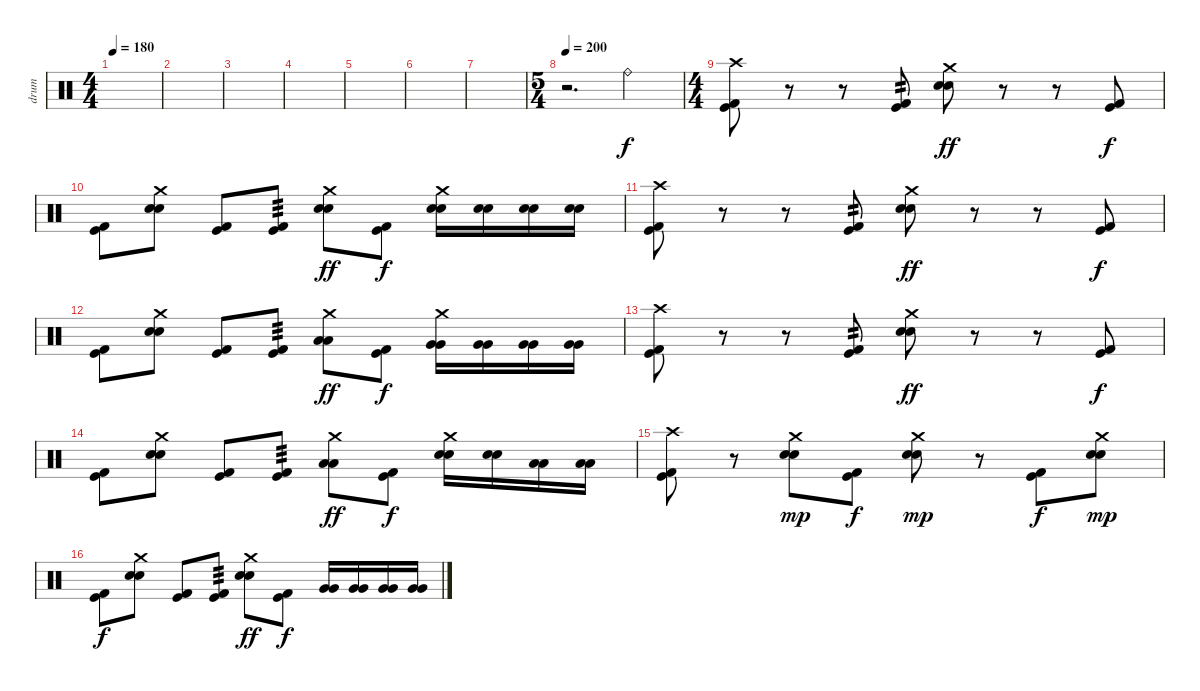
\track ("drum" "drum") {instrument percussion}
\staff {score}
\articulation defaults
\ts (4 4)
\tempo 180
\clef neutral
\ks c
|
|
|
|
|
|
|
\ts (5 4)
\tempo 200
r.2{d} "Ride (bell)".2{dy f} |
\ts (4 4)
("Crash high (hit)" "Kick (hit)" "Kick (hit) 2").8 r.8 r.8 ("Kick (hit)" "Kick (hit) 2").8{tp 2} ("Crash medium (hit)" "Electric Snare (hit)" "Electric Snare (hit)").8{dy ff} r.8 r.8 ("Kick (hit)" "Kick (hit) 2").8{dy f} |
("Kick (hit)" "Kick (hit) 2").8 ("Crash medium (hit)" "Electric Snare (hit)" "Electric Snare (hit)").8 ("Kick (hit)" "Kick (hit) 2").8 ("Kick (hit)" "Kick (hit) 2").8{tp 3} ("Crash medium (hit)" "Electric Snare (hit)" "Electric Snare (hit)").8{dy ff} ("Kick (hit)" "Kick (hit) 2").8{dy f} ("Crash medium (hit)" "Electric Snare (hit)" "Electric Snare (hit)").16 ("Electric Snare (hit)" "Electric Snare (hit)").16 ("Electric Snare (hit)" "Electric Snare (hit)").16 ("Electric Snare (hit)" "Electric Snare (hit)").16 |
("Crash high (hit)" "Kick (hit)" "Kick (hit) 2").8 r.8 r.8 ("Kick (hit)" "Kick (hit) 2").8{tp 2} ("Crash medium (hit)" "Electric Snare (hit)" "Electric Snare (hit)").8{dy ff} r.8 r.8 ("Kick (hit)" "Kick (hit) 2").8{dy f} |
("Kick (hit)" "Kick (hit) 2").8 ("Crash medium (hit)" "Electric Snare (hit)" "Electric Snare (hit)").8 ("Kick (hit)" "Kick (hit) 2").8 ("Kick (hit)" "Kick (hit) 2").8{tp 3} ("Crash medium (hit)" "Low Tom (hit)" "Low Tom (hit)").8{dy ff} ("Kick (hit)" "Kick (hit) 2").8{dy f} ("Crash medium (hit)" "Very Low Tom (hit)" "Very Low Tom (hit)").16 ("Very Low Tom (hit)" "Very Low Tom (hit)").16 ("Very Low Tom (hit)" "Very Low Tom (hit)").16 ("Very Low Tom (hit)" "Very Low Tom (hit)").16 |
("Crash high (hit)" "Kick (hit)" "Kick (hit) 2").8 r.8 r.8 ("Kick (hit)" "Kick (hit) 2").8{tp 2} ("Crash medium (hit)" "Electric Snare (hit)" "Electric Snare (hit)").8{dy ff} r.8 r.8 ("Kick (hit)" "Kick (hit) 2").8{dy f} |
("Kick (hit)" "Kick (hit) 2").8 ("Crash medium (hit)" "Electric Snare (hit)" "Electric Snare (hit)").8 ("Kick (hit)" "Kick (hit) 2").8 ("Kick (hit)" "Kick (hit) 2").8{tp 3} ("Crash medium (hit)" "Low Tom (hit)" "Low Tom (hit)").8{dy ff} ("Kick (hit)" "Kick (hit) 2").8{dy f} ("Crash medium (hit)" "Electric Snare (hit)" "Electric Snare (hit)").16 ("Electric Snare (hit)" "Electric Snare (hit)").16 ("Low Tom (hit)" "Low Tom (hit)").16 ("Low Tom (hit)" "Low Tom (hit)").16 |
("Crash high (hit)" "Kick (hit)" "Kick (hit) 2").8 r.8 ("Crash medium (hit)" "Electric Snare (hit)" "Electric Snare (hit)").8{dy mp} ("Kick (hit)" "Kick (hit) 2").8{dy f} ("Crash medium (hit)" "Electric Snare (hit)" "Electric Snare (hit)").8{dy mp} r.8 ("Kick (hit)" "Kick (hit) 2").8{dy f} ("Crash medium (hit)" "Electric Snare (hit)" "Electric Snare (hit)").8{dy mp} |
("Kick (hit)" "Kick (hit) 2").8{dy f} ("Crash medium (hit)" "Electric Snare (hit)" "Electric Snare (hit)").8 ("Kick (hit)" "Kick (hit) 2").8 ("Kick (hit)" "Kick (hit) 2").8{tp 3} ("Crash medium (hit)" "Electric Snare (hit)" "Electric Snare (hit)").8{dy ff} ("Kick (hit)" "Kick (hit) 2").8{dy f} ("Very Low Tom (hit)" "Very Low Tom (hit)").16 ("Very Low Tom (hit)" "Very Low Tom (hit)").16 ("Very Low Tom (hit)" "Very Low Tom (hit)").16 ("Very Low Tom (hit)" "Very Low Tom (hit)").16
